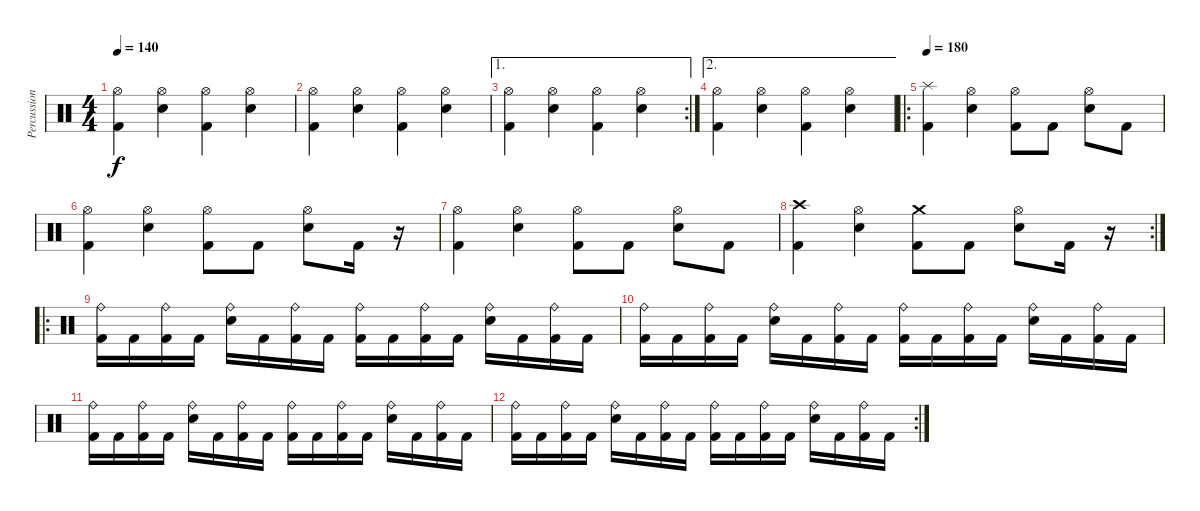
\track ("Percussion" "Percussion") {instrument percussion}
\staff {score}
\articulation defaults
\ts (4 4)
\tempo 140
\clef neutral
\ks c
("Kick (hit) 2" "Hi-Hat (open)").4{dy f} ("Snare (hit) 2" "Hi-Hat (open)").4 ("Kick (hit) 2" "Hi-Hat (open)").4 ("Snare (hit) 2" "Hi-Hat (open)").4 |
("Kick (hit) 2" "Hi-Hat (open)").4 ("Snare (hit) 2" "Hi-Hat (open)").4 ("Kick (hit) 2" "Hi-Hat (open)").4 ("Snare (hit) 2" "Hi-Hat (open)").4 |
\ae 1
\rc 2
("Kick (hit) 2" "Hi-Hat (open)").4 ("Snare (hit) 2" "Hi-Hat (open)").4 ("Kick (hit) 2" "Hi-Hat (open)").4 ("Snare (hit) 2" "Hi-Hat (open)").4 |
\ae 2
("Kick (hit) 2" "Hi-Hat (open)").4 ("Snare (hit) 2" "Hi-Hat (open)").4 ("Kick (hit) 2" "Hi-Hat (open)").4 ("Snare (hit) 2" "Hi-Hat (open)").4 |
\ro
\tempo 180
("Kick (hit) 2" "Splash (hit)").4 ("Snare (hit) 2" "Hi-Hat (open)").4 ("Kick (hit) 2" "Hi-Hat (open)").8 "Kick (hit) 2".8 ("Snare (hit) 2" "Hi-Hat (open)").8 "Kick (hit) 2".8 |
("Kick (hit) 2" "Hi-Hat (open)").4 ("Snare (hit) 2" "Hi-Hat (open)").4 ("Kick (hit) 2" "Hi-Hat (open)").8 "Kick (hit) 2".8 ("Snare (hit) 2" "Hi-Hat (open)").8 "Kick (hit) 2".16 r.16 |
("Kick (hit) 2" "Hi-Hat (open)").4 ("Snare (hit) 2" "Hi-Hat (open)").4 ("Kick (hit) 2" "Hi-Hat (open)").8 "Kick (hit) 2".8 ("Snare (hit) 2" "Hi-Hat (open)").8 "Kick (hit) 2".8 |
\rc 2
("Kick (hit) 2" "Crash high (hit)").4 ("Snare (hit) 2" "Hi-Hat (open)").4 ("Kick (hit) 2" "Crash medium (hit)").8 "Kick (hit) 2".8 ("Snare (hit) 2" "Hi-Hat (open)").8 "Kick (hit) 2".16 r.16 |
\ro
("Kick (hit) 2" "Ride (bell)").16 "Kick (hit) 2".16 ("Kick (hit) 2" "Ride (bell)").16 "Kick (hit) 2".16 ("Snare (hit) 2" "Ride (bell)").16 "Kick (hit) 2".16 ("Kick (hit) 2" "Ride (bell)").16 "Kick (hit) 2".16 ("Kick (hit) 2" "Ride (bell)").16 "Kick (hit) 2".16 ("Kick (hit) 2" "Ride (bell)").16 "Kick (hit) 2".16 ("Snare (hit) 2" "Ride (bell)").16 "Kick (hit) 2".16 ("Kick (hit) 2" "Ride (bell)").16 "Kick (hit) 2".16 |
("Kick (hit) 2" "Ride (bell)").16 "Kick (hit) 2".16 ("Kick (hit) 2" "Ride (bell)").16 "Kick (hit) 2".16 ("Snare (hit) 2" "Ride (bell)").16 "Kick (hit) 2".16 ("Kick (hit) 2" "Ride (bell)").16 "Kick (hit) 2".16 ("Kick (hit) 2" "Ride (bell)").16 "Kick (hit) 2".16 ("Kick (hit) 2" "Ride (bell)").16 "Kick (hit) 2".16 ("Snare (hit) 2" "Ride (bell)").16 "Kick (hit) 2".16 ("Kick (hit) 2" "Ride (bell)").16 "Kick (hit) 2".16 |
("Kick (hit) 2" "Ride (bell)").16 "Kick (hit) 2".16 ("Kick (hit) 2" "Ride (bell)").16 "Kick (hit) 2".16 ("Snare (hit) 2" "Ride (bell)").16 "Kick (hit) 2".16 ("Kick (hit) 2" "Ride (bell)").16 "Kick (hit) 2".16 ("Kick (hit) 2" "Ride (bell)").16 "Kick (hit) 2".16 ("Kick (hit) 2" "Ride (bell)").16 "Kick (hit) 2".16 ("Snare (hit) 2" "Ride (bell)").16 "Kick (hit) 2".16 ("Kick (hit) 2" "Ride (bell)").16 "Kick (hit) 2".16 |
\rc 2
("Kick (hit) 2" "Ride (bell)").16 "Kick (hit) 2".16 ("Kick (hit) 2" "Ride (bell)").16 "Kick (hit) 2".16 ("Snare (hit) 2" "Ride (bell)").16 "Kick (hit) 2".16 ("Kick (hit) 2" "Ride (bell)").16 "Kick (hit) 2".16 ("Kick (hit) 2" "Ride (bell)").16 "Kick (hit) 2".16 ("Kick (hit) 2" "Ride (bell)").16 "Kick (hit) 2".16 ("Snare (hit) 2" "Ride (bell)").16 "Kick (hit) 2".16 ("Kick (hit) 2" "Ride (bell)").16 "Kick (hit) 2".16
